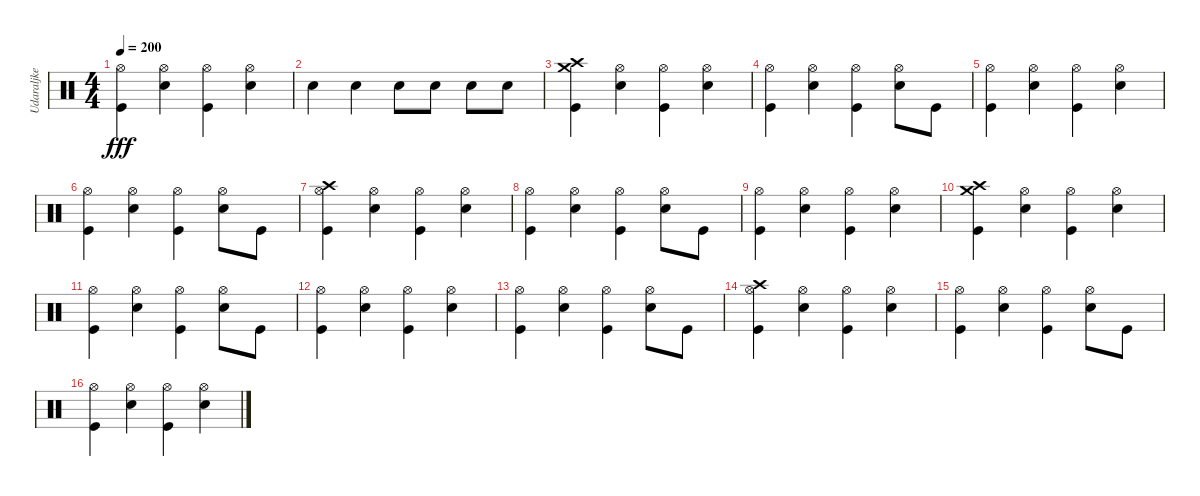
\track ("Udaraljke" "Udaraljke") {instrument percussion}
\staff {score}
\articulation defaults
\ts (4 4)
\tempo 200
\clef neutral
\ks c
("Hi-Hat (open)" "Kick (hit)").4{dy fff} ("Hi-Hat (open)" "Electric Snare (hit)").4 ("Hi-Hat (open)" "Kick (hit)").4 ("Hi-Hat (open)" "Electric Snare (hit)").4 |
"Electric Snare (hit)".4 "Electric Snare (hit)".4 "Electric Snare (hit)".8 "Electric Snare (hit)".8 "Electric Snare (hit)".8 "Electric Snare (hit)".8 |
("Crash high (hit)" "Crash medium (hit)" "Kick (hit)").4 ("Hi-Hat (open)" "Electric Snare (hit)").4 ("Hi-Hat (open)" "Kick (hit)").4 ("Hi-Hat (open)" "Electric Snare (hit)").4 |
("Hi-Hat (open)" "Kick (hit)").4 ("Hi-Hat (open)" "Electric Snare (hit)").4 ("Hi-Hat (open)" "Kick (hit)").4 ("Hi-Hat (open)" "Electric Snare (hit)").8 "Kick (hit)".8 |
("Hi-Hat (open)" "Kick (hit)").4 ("Hi-Hat (open)" "Electric Snare (hit)").4 ("Hi-Hat (open)" "Kick (hit)").4 ("Hi-Hat (open)" "Electric Snare (hit)").4 |
("Hi-Hat (open)" "Kick (hit)").4 ("Hi-Hat (open)" "Electric Snare (hit)").4 ("Hi-Hat (open)" "Kick (hit)").4 ("Hi-Hat (open)" "Electric Snare (hit)").8 "Kick (hit)".8 |
("Crash high (hit)" "Hi-Hat (open)" "Kick (hit)").4 ("Hi-Hat (open)" "Electric Snare (hit)").4 ("Hi-Hat (open)" "Kick (hit)").4 ("Hi-Hat (open)" "Electric Snare (hit)").4 |
("Hi-Hat (open)" "Kick (hit)").4 ("Hi-Hat (open)" "Electric Snare (hit)").4 ("Hi-Hat (open)" "Kick (hit)").4 ("Hi-Hat (open)" "Electric Snare (hit)").8 "Kick (hit)".8 |
("Hi-Hat (open)" "Kick (hit)").4 ("Hi-Hat (open)" "Electric Snare (hit)").4 ("Hi-Hat (open)" "Kick (hit)").4 ("Hi-Hat (open)" "Electric Snare (hit)").4 |
("Crash high (hit)" "Crash medium (hit)" "Kick (hit)").4 ("Hi-Hat (open)" "Electric Snare (hit)").4 ("Hi-Hat (open)" "Kick (hit)").4 ("Hi-Hat (open)" "Electric Snare (hit)").4 |
("Hi-Hat (open)" "Kick (hit)").4 ("Hi-Hat (open)" "Electric Snare (hit)").4 ("Hi-Hat (open)" "Kick (hit)").4 ("Hi-Hat (open)" "Electric Snare (hit)").8 "Kick (hit)".8 |
("Hi-Hat (open)" "Kick (hit)").4 ("Hi-Hat (open)" "Electric Snare (hit)").4 ("Hi-Hat (open)" "Kick (hit)").4 ("Hi-Hat (open)" "Electric Snare (hit)").4 |
("Hi-Hat (open)" "Kick (hit)").4 ("Hi-Hat (open)" "Electric Snare (hit)").4 ("Hi-Hat (open)" "Kick (hit)").4 ("Hi-Hat (open)" "Electric Snare (hit)").8 "Kick (hit)".8 |
("Crash high (hit)" "Hi-Hat (open)" "Kick (hit)").4 ("Hi-Hat (open)" "Electric Snare (hit)").4 ("Hi-Hat (open)" "Kick (hit)").4 ("Hi-Hat (open)" "Electric Snare (hit)").4 |
("Hi-Hat (open)" "Kick (hit)").4 ("Hi-Hat (open)" "Electric Snare (hit)").4 ("Hi-Hat (open)" "Kick (hit)").4 ("Hi-Hat (open)" "Electric Snare (hit)").8 "Kick (hit)".8 |
("Hi-Hat (open)" "Kick (hit)").4 ("Hi-Hat (open)" "Electric Snare (hit)").4 ("Hi-Hat (open)" "Kick (hit)").4 ("Hi-Hat (open)" "Electric Snare (hit)").4
